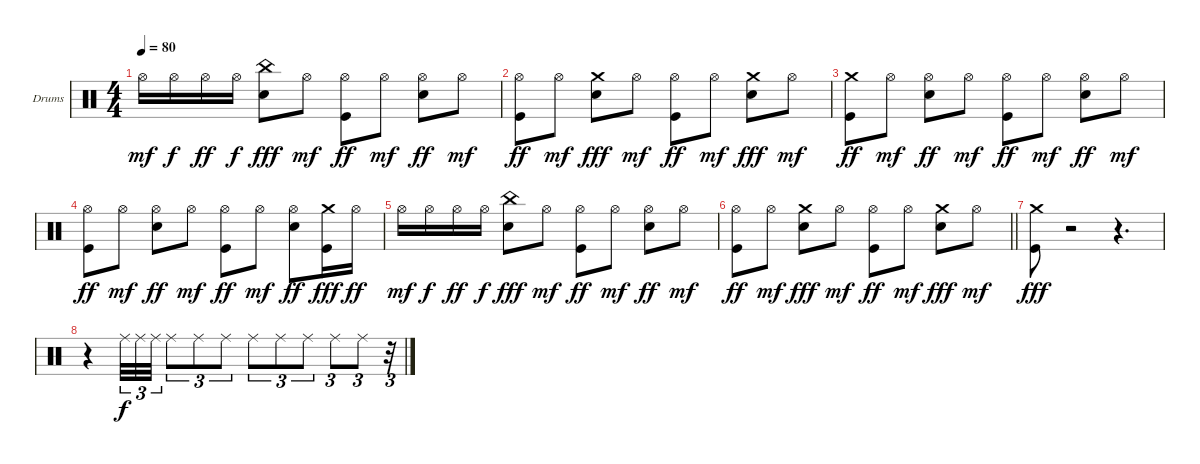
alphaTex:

\bracketExtendMode groupsimilarinstruments
\firstSystemTrackNameOrientation horizontal
\otherSystemsTrackNameOrientation horizontal
\track ("Drumkit" "Drums") {instrument percussion}
\staff {score}
\articulation defaults
\ts (4 4)
\tempo 80
\clef neutral
\ks c "Hi-Hat (open)".16{dy mf} "Hi-Hat (open)".16{dy f} "Hi-Hat (open)".16{dy ff} "Hi-Hat (open)".16{dy f}
("China (hit)" "Snare (hit) 2").8{dy fff} "Hi-Hat (open)".8{dy mf} ("Hi-Hat (open)" "Kick (hit)").8{dy ff} "Hi-Hat (open)".8{dy mf} ("Hi-Hat (open)" "Snare (hit) 2").8{dy ff} "Hi-Hat (open)".8{dy mf} |
("Hi-Hat (open)" "Kick (hit)").8{dy ff} "Hi-Hat (open)".8{dy mf} ("Crash medium (hit)" "Snare (hit) 2").8{dy fff} "Hi-Hat (open)".8{dy mf} ("Hi-Hat (open)" "Kick (hit)").8{dy ff} "Hi-Hat (open)".8{dy mf} ("Crash medium (hit)" "Snare (hit) 2").8{dy fff} "Hi-Hat (open)".8{dy mf} |
("Crash medium (hit)" "Kick (hit)").8{dy ff} "Hi-Hat (open)".8{dy mf} ("Hi-Hat (open)" "Snare (hit) 2").8{dy ff} "Hi-Hat (open)".8{dy mf} ("Hi-Hat (open)" "Kick (hit)").8{dy ff} "Hi-Hat (open)".8{dy mf} ("Hi-Hat (open)" "Snare (hit) 2").8{dy ff} "Hi-Hat (open)".8{dy mf} |
("Hi-Hat (open)" "Kick (hit)").8{dy ff} "Hi-Hat (open)".8{dy mf} ("Hi-Hat (open)" "Snare (hit) 2").8{dy ff} "Hi-Hat (open)".8{dy mf} ("Hi-Hat (open)" "Kick (hit)").8{dy ff} "Hi-Hat (open)".8{dy mf} ("Hi-Hat (open)" "Snare (hit) 2").8{dy ff} ("Crash medium (hit)" "Kick (hit)").16{dy fff} "Hi-Hat (open)".16{dy ff} |
"Hi-Hat (open)".16{dy mf} "Hi-Hat (open)".16{dy f} "Hi-Hat (open)".16{dy ff} "Hi-Hat (open)".16{dy f} ("China (hit)" "Snare (hit) 2").8{dy fff} "Hi-Hat (open)".8{dy mf} ("Hi-Hat (open)" "Kick (hit)").8{dy ff} "Hi-Hat (open)".8{dy mf} ("Hi-Hat (open)" "Snare (hit) 2").8{dy ff} "Hi-Hat (open)".8{dy mf} |
\barLineRight lightlight
("Hi-Hat (open)" "Kick (hit)").8{dy ff} "Hi-Hat (open)".8{dy mf} ("Crash medium (hit)" "Snare (hit) 2").8{dy fff} "Hi-Hat (open)".8{dy mf} ("Hi-Hat (open)" "Kick (hit)").8{dy ff} "Hi-Hat (open)".8{dy mf} ("Crash medium (hit)" "Snare (hit) 2").8{dy fff} "Hi-Hat (open)".8{dy mf} |
("Crash medium (hit)" "Kick (hit)").8{dy fff} r.2 r.4{d} |
r.4 "Ride (middle)".32{tu (3 2) dy f} "Ride (middle)".32{tu (3 2)} "Ride (middle)".32{tu (3 2)} "Ride (middle)".8{tu (3 2)} "Ride (middle)".8{tu (3 2)} "Ride (middle)".8{tu (3 2)} "Ride (middle)".8{tu (3 2)} "Ride (middle)".8{tu (3 2)} "Ride (middle)".8{tu (3 2)} "Ride (middle)".8{tu (3 2)} "Ride (middle)".8{tu (3 2)} r.32{tu (3 2)}
